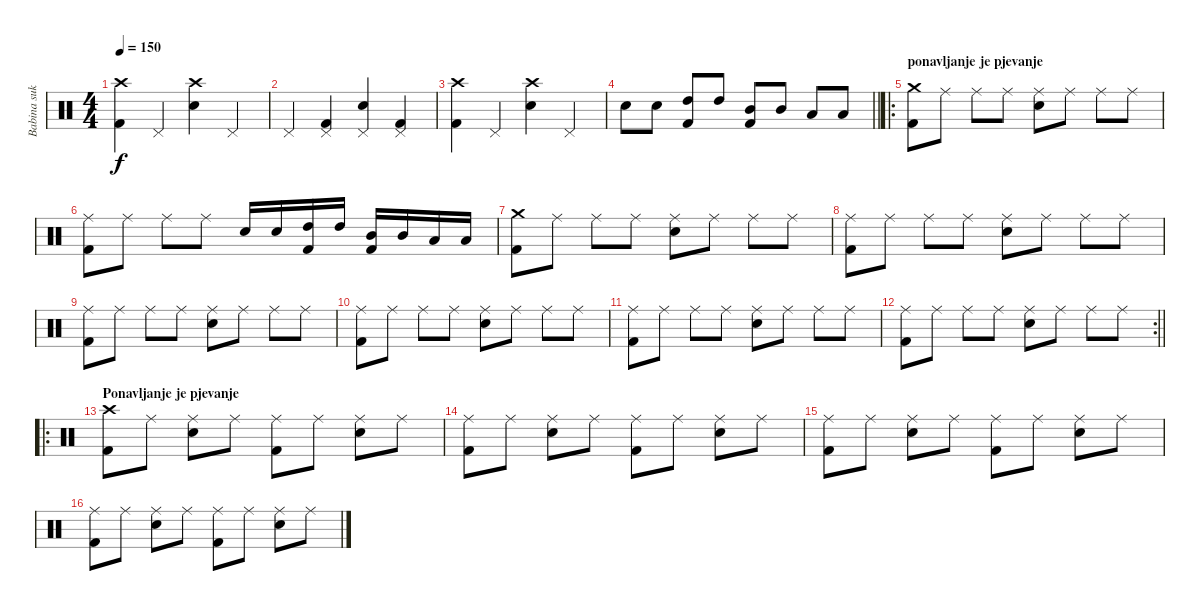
\track ("Babina sukrvica - Dragan" "Babina suk") {instrument percussion}
\staff {score}
\articulation defaults
\ts (4 4)
\tempo 150
\clef neutral
\ks c
("Crash high (hit)" "Kick (hit) 2").4{dy f} "Pedal Hi-Hat (hit)".4 ("Crash high (hit)" "Electric Snare (hit)").4 "Pedal Hi-Hat (hit)".4 |
"Pedal Hi-Hat (hit)".4 ("Pedal Hi-Hat (hit)" "Kick (hit) 2").4 ("Pedal Hi-Hat (hit)" "Electric Snare (hit)").4 ("Pedal Hi-Hat (hit)" "Kick (hit) 2").4 |
("Crash high (hit)" "Kick (hit) 2").4 "Pedal Hi-Hat (hit)".4 ("Crash high (hit)" "Electric Snare (hit)").4 "Pedal Hi-Hat (hit)".4 |
\barLineRight lightlight "Electric Snare (hit)".8 "Electric Snare (hit)".8
("Kick (hit) 2" "High Tom (hit)").8 "High Tom (hit)".8 ("Kick (hit) 2" "Mid Tom (hit)").8 "Mid Tom (hit)".8 "Low Tom (hit)".8 "Low Tom (hit)".8 |
\ro
\section ("" "ponavljanje je pjevanje")
("Crash medium (hit)" "Kick (hit) 2").8 "Ride (middle)".8 "Ride (middle)".8 "Ride (middle)".8 ("Ride (middle)" "Electric Snare (hit)").8 "Ride (middle)".8 "Ride (middle)".8 "Ride (middle)".8 |
("Ride (middle)" "Kick (hit) 2").8 "Ride (middle)".8 "Ride (middle)".8 "Ride (middle)".8 "Electric Snare (hit)".16 "Electric Snare (hit)".16 ("Kick (hit) 2" "High Tom (hit)").16 "High Tom (hit)".16 ("Kick (hit) 2" "Mid Tom (hit)").16 "Mid Tom (hit)".16 "Low Tom (hit)".16 "Low Tom (hit)".16 |
("Crash medium (hit)" "Kick (hit) 2").8 "Ride (middle)".8 "Ride (middle)".8 "Ride (middle)".8 ("Ride (middle)" "Electric Snare (hit)").8 "Ride (middle)".8 "Ride (middle)".8 "Ride (middle)".8 |
("Ride (middle)" "Kick (hit) 2").8 "Ride (middle)".8 "Ride (middle)".8 "Ride (middle)".8 ("Ride (middle)" "Electric Snare (hit)").8 "Ride (middle)".8 "Ride (middle)".8 "Ride (middle)".8 |
("Ride (middle)" "Kick (hit) 2").8 "Ride (middle)".8 "Ride (middle)".8 "Ride (middle)".8 ("Ride (middle)" "Electric Snare (hit)").8 "Ride (middle)".8 "Ride (middle)".8 "Ride (middle)".8 |
("Ride (middle)" "Kick (hit) 2").8 "Ride (middle)".8 "Ride (middle)".8 "Ride (middle)".8 ("Ride (middle)" "Electric Snare (hit)").8 "Ride (middle)".8 "Ride (middle)".8 "Ride (middle)".8 |
("Ride (middle)" "Kick (hit) 2").8 "Ride (middle)".8 "Ride (middle)".8 "Ride (middle)".8 ("Ride (middle)" "Electric Snare (hit)").8 "Ride (middle)".8 "Ride (middle)".8 "Ride (middle)".8 |
\rc 2
\barLineRight lightlight
("Ride (middle)" "Kick (hit) 2").8 "Ride (middle)".8 "Ride (middle)".8 "Ride (middle)".8 ("Ride (middle)" "Electric Snare (hit)").8 "Ride (middle)".8 "Ride (middle)".8 "Ride (middle)".8 |
\ro
\section ("" "Ponavljanje je pjevanje")
("Crash high (hit)" "Kick (hit) 2").8 "Ride (middle)".8 ("Ride (middle)" "Electric Snare (hit)").8 "Ride (middle)".8 ("Ride (middle)" "Kick (hit) 2").8 "Ride (middle)".8 ("Ride (middle)" "Electric Snare (hit)").8 "Ride (middle)".8 |
("Ride (middle)" "Kick (hit) 2").8 "Ride (middle)".8 ("Ride (middle)" "Electric Snare (hit)").8 "Ride (middle)".8 ("Ride (middle)" "Kick (hit) 2").8 "Ride (middle)".8 ("Ride (middle)" "Electric Snare (hit)").8 "Ride (middle)".8 |
("Ride (middle)" "Kick (hit) 2").8 "Ride (middle)".8 ("Ride (middle)" "Electric Snare (hit)").8 "Ride (middle)".8 ("Ride (middle)" "Kick (hit) 2").8 "Ride (middle)".8 ("Ride (middle)" "Electric Snare (hit)").8 "Ride (middle)".8 |
("Ride (middle)" "Kick (hit) 2").8 "Ride (middle)".8 ("Ride (middle)" "Electric Snare (hit)").8 "Ride (middle)".8 ("Ride (middle)" "Kick (hit) 2").8 "Ride (middle)".8 ("Ride (middle)" "Electric Snare (hit)").8 "Ride (middle)".8
